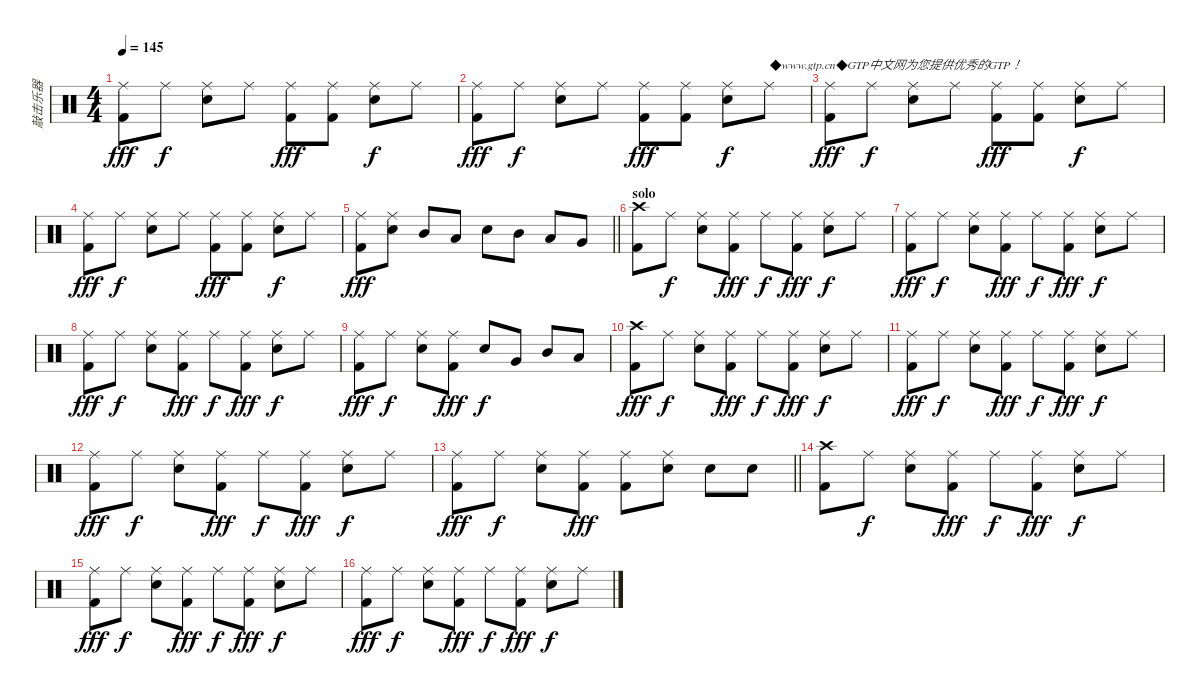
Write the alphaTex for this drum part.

\track ("敲击乐器" "敲击乐器") {instrument percussion}
\staff {score}
\articulation defaults
\ts (4 4)
\tempo 145
\clef neutral
\ks c
("Ride (middle)" "Kick (hit) 2").8{dy fff} "Ride (middle)".8{dy f} ("Ride (middle)" "Electric Snare (hit)").8 "Ride (middle)".8 ("Ride (middle)" "Kick (hit) 2").8{dy fff} ("Ride (middle)" "Kick (hit) 2").8 ("Ride (middle)" "Electric Snare (hit)").8{dy f} "Ride (middle)".8 |
("Ride (middle)" "Kick (hit) 2").8{dy fff} "Ride (middle)".8{dy f} ("Ride (middle)" "Electric Snare (hit)").8 "Ride (middle)".8 ("Ride (middle)" "Kick (hit) 2").8{dy fff} ("Ride (middle)" "Kick (hit) 2").8 ("Ride (middle)" "Electric Snare (hit)").8{dy f} "Ride (middle)".8{txt "◆www.gtp.cn◆GTP中文网为您提供优秀的GTP！"} |
("Ride (middle)" "Kick (hit) 2").8{dy fff} "Ride (middle)".8{dy f} ("Ride (middle)" "Electric Snare (hit)").8 "Ride (middle)".8 ("Ride (middle)" "Kick (hit) 2").8{dy fff} ("Ride (middle)" "Kick (hit) 2").8 ("Ride (middle)" "Electric Snare (hit)").8{dy f} "Ride (middle)".8 |
("Ride (middle)" "Kick (hit) 2").8{dy fff} "Ride (middle)".8{dy f} ("Ride (middle)" "Electric Snare (hit)").8 "Ride (middle)".8 ("Ride (middle)" "Kick (hit) 2").8{dy fff} ("Ride (middle)" "Kick (hit) 2").8 ("Ride (middle)" "Electric Snare (hit)").8{dy f} "Ride (middle)".8 |
\barLineRight lightlight
("Ride (middle)" "Kick (hit) 2").8{dy fff} ("Ride (middle)" "Electric Snare (hit)").8 "Mid Tom (hit)".8 "Low Tom (hit)".8 "Electric Snare (hit)".8 "Mid Tom (hit)".8 "Low Tom (hit)".8 "Very Low Tom (hit)".8 |
\section ("" "solo")
("Crash high (hit)" "Kick (hit) 2").8 "Ride (middle)".8{dy f} ("Ride (middle)" "Electric Snare (hit)").8 ("Ride (middle)" "Kick (hit) 2").8{dy fff} "Ride (middle)".8{dy f} ("Ride (middle)" "Kick (hit) 2").8{dy fff} ("Ride (middle)" "Electric Snare (hit)").8{dy f} "Ride (middle)".8 |
("Ride (middle)" "Kick (hit) 2").8{dy fff} "Ride (middle)".8{dy f} ("Ride (middle)" "Electric Snare (hit)").8 ("Ride (middle)" "Kick (hit) 2").8{dy fff} "Ride (middle)".8{dy f} ("Ride (middle)" "Kick (hit) 2").8{dy fff} ("Ride (middle)" "Electric Snare (hit)").8{dy f} "Ride (middle)".8 |
("Ride (middle)" "Kick (hit) 2").8{dy fff} "Ride (middle)".8{dy f} ("Ride (middle)" "Electric Snare (hit)").8 ("Ride (middle)" "Kick (hit) 2").8{dy fff} "Ride (middle)".8{dy f} ("Ride (middle)" "Kick (hit) 2").8{dy fff} ("Ride (middle)" "Electric Snare (hit)").8{dy f} "Ride (middle)".8 |
("Ride (middle)" "Kick (hit) 2").8{dy fff} "Ride (middle)".8{dy f} ("Ride (middle)" "Electric Snare (hit)").8 ("Ride (middle)" "Kick (hit) 2").8{dy fff} "Electric Snare (hit)".8{dy f} "Very Low Tom (hit)".8 "Mid Tom (hit)".8 "Low Tom (hit)".8 |
("Crash high (hit)" "Kick (hit) 2").8{dy fff} "Ride (middle)".8{dy f} ("Ride (middle)" "Electric Snare (hit)").8 ("Ride (middle)" "Kick (hit) 2").8{dy fff} "Ride (middle)".8{dy f} ("Ride (middle)" "Kick (hit) 2").8{dy fff} ("Ride (middle)" "Electric Snare (hit)").8{dy f} "Ride (middle)".8 |
("Ride (middle)" "Kick (hit) 2").8{dy fff} "Ride (middle)".8{dy f} ("Ride (middle)" "Electric Snare (hit)").8 ("Ride (middle)" "Kick (hit) 2").8{dy fff} "Ride (middle)".8{dy f} ("Ride (middle)" "Kick (hit) 2").8{dy fff} ("Ride (middle)" "Electric Snare (hit)").8{dy f} "Ride (middle)".8 |
("Ride (middle)" "Kick (hit) 2").8{dy fff} "Ride (middle)".8{dy f} ("Ride (middle)" "Electric Snare (hit)").8 ("Ride (middle)" "Kick (hit) 2").8{dy fff} "Ride (middle)".8{dy f} ("Ride (middle)" "Kick (hit) 2").8{dy fff} ("Ride (middle)" "Electric Snare (hit)").8{dy f} "Ride (middle)".8 |
\barLineRight lightlight
("Ride (middle)" "Kick (hit) 2").8{dy fff} "Ride (middle)".8{dy f} ("Ride (middle)" "Electric Snare (hit)").8 ("Ride (middle)" "Kick (hit) 2").8{dy fff} ("Ride (middle)" "Kick (hit) 2").8 ("Ride (middle)" "Electric Snare (hit)").8 "Electric Snare (hit)".8 "Electric Snare (hit)".8 |
\section ("" "")
("Crash high (hit)" "Kick (hit) 2").8 "Ride (middle)".8{dy f} ("Ride (middle)" "Electric Snare (hit)").8 ("Ride (middle)" "Kick (hit) 2").8{dy fff} "Ride (middle)".8{dy f} ("Ride (middle)" "Kick (hit) 2").8{dy fff} ("Ride (middle)" "Electric Snare (hit)").8{dy f} "Ride (middle)".8 |
("Ride (middle)" "Kick (hit) 2").8{dy fff} "Ride (middle)".8{dy f} ("Ride (middle)" "Electric Snare (hit)").8 ("Ride (middle)" "Kick (hit) 2").8{dy fff} "Ride (middle)".8{dy f} ("Ride (middle)" "Kick (hit) 2").8{dy fff} ("Ride (middle)" "Electric Snare (hit)").8{dy f} "Ride (middle)".8 |
("Ride (middle)" "Kick (hit) 2").8{dy fff} "Ride (middle)".8{dy f} ("Ride (middle)" "Electric Snare (hit)").8 ("Ride (middle)" "Kick (hit) 2").8{dy fff} "Ride (middle)".8{dy f} ("Ride (middle)" "Kick (hit) 2").8{dy fff} ("Ride (middle)" "Electric Snare (hit)").8{dy f} "Ride (middle)".8
